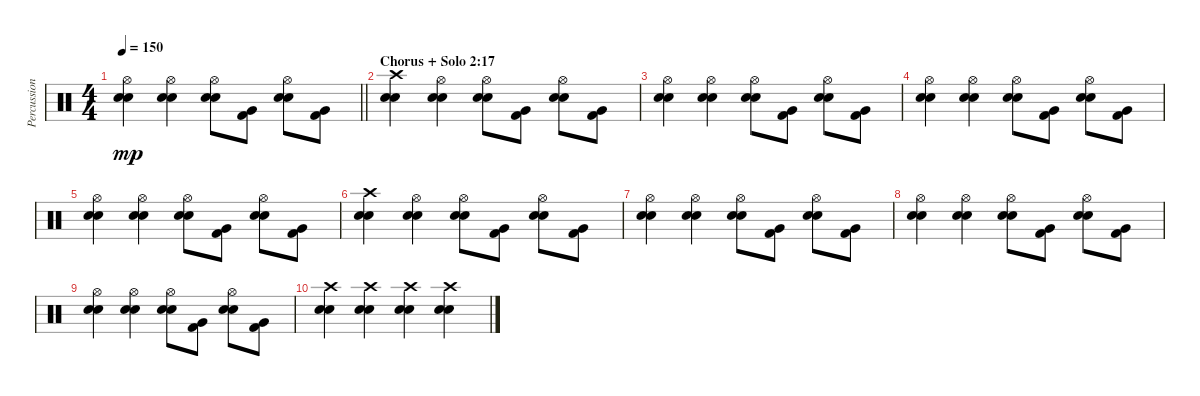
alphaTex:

\track ("Percussion" "Percussion") {instrument percussion}
\staff {score}
\articulation defaults
\ts (4 4)
\tempo 150
\clef neutral
\barLineRight lightlight
\ks c
("Electric Snare (hit)" "Snare (hit) 2" "Hi-Hat (open)").4{dy mp} ("Electric Snare (hit)" "Snare (hit) 2" "Hi-Hat (open)").4 ("Electric Snare (hit)" "Snare (hit) 2" "Hi-Hat (open)").8 ("Kick (hit) 2" "Very Low Tom (hit)").8 ("Electric Snare (hit)" "Snare (hit) 2" "Hi-Hat (open)").8 ("Kick (hit) 2" "Very Low Tom (hit)").8 |
\section ("" "Chorus + Solo 2:17")
("Electric Snare (hit)" "Snare (hit) 2" "Crash high (hit)").4 ("Electric Snare (hit)" "Snare (hit) 2" "Hi-Hat (open)").4 ("Electric Snare (hit)" "Snare (hit) 2" "Hi-Hat (open)").8 ("Kick (hit) 2" "Very Low Tom (hit)").8 ("Electric Snare (hit)" "Snare (hit) 2" "Hi-Hat (open)").8 ("Kick (hit) 2" "Very Low Tom (hit)").8 |
("Electric Snare (hit)" "Snare (hit) 2" "Hi-Hat (open)").4 ("Electric Snare (hit)" "Snare (hit) 2" "Hi-Hat (open)").4 ("Electric Snare (hit)" "Snare (hit) 2" "Hi-Hat (open)").8 ("Kick (hit) 2" "Very Low Tom (hit)").8 ("Electric Snare (hit)" "Snare (hit) 2" "Hi-Hat (open)").8 ("Kick (hit) 2" "Very Low Tom (hit)").8 |
("Electric Snare (hit)" "Snare (hit) 2" "Hi-Hat (open)").4 ("Electric Snare (hit)" "Snare (hit) 2" "Hi-Hat (open)").4 ("Electric Snare (hit)" "Snare (hit) 2" "Hi-Hat (open)").8 ("Kick (hit) 2" "Very Low Tom (hit)").8 ("Electric Snare (hit)" "Snare (hit) 2" "Hi-Hat (open)").8 ("Kick (hit) 2" "Very Low Tom (hit)").8 |
("Electric Snare (hit)" "Snare (hit) 2" "Hi-Hat (open)").4 ("Electric Snare (hit)" "Snare (hit) 2" "Hi-Hat (open)").4 ("Electric Snare (hit)" "Snare (hit) 2" "Hi-Hat (open)").8 ("Kick (hit) 2" "Very Low Tom (hit)").8 ("Electric Snare (hit)" "Snare (hit) 2" "Hi-Hat (open)").8 ("Kick (hit) 2" "Very Low Tom (hit)").8 |
("Electric Snare (hit)" "Snare (hit) 2" "Crash high (hit)").4 ("Electric Snare (hit)" "Snare (hit) 2" "Hi-Hat (open)").4 ("Electric Snare (hit)" "Snare (hit) 2" "Hi-Hat (open)").8 ("Kick (hit) 2" "Very Low Tom (hit)").8 ("Electric Snare (hit)" "Snare (hit) 2" "Hi-Hat (open)").8 ("Kick (hit) 2" "Very Low Tom (hit)").8 |
("Electric Snare (hit)" "Snare (hit) 2" "Hi-Hat (open)").4 ("Electric Snare (hit)" "Snare (hit) 2" "Hi-Hat (open)").4 ("Electric Snare (hit)" "Snare (hit) 2" "Hi-Hat (open)").8 ("Kick (hit) 2" "Very Low Tom (hit)").8 ("Electric Snare (hit)" "Snare (hit) 2" "Hi-Hat (open)").8 ("Kick (hit) 2" "Very Low Tom (hit)").8 |
("Electric Snare (hit)" "Snare (hit) 2" "Hi-Hat (open)").4 ("Electric Snare (hit)" "Snare (hit) 2" "Hi-Hat (open)").4 ("Electric Snare (hit)" "Snare (hit) 2" "Hi-Hat (open)").8 ("Kick (hit) 2" "Very Low Tom (hit)").8 ("Electric Snare (hit)" "Snare (hit) 2" "Hi-Hat (open)").8 ("Kick (hit) 2" "Very Low Tom (hit)").8 |
("Electric Snare (hit)" "Snare (hit) 2" "Hi-Hat (open)").4 ("Electric Snare (hit)" "Snare (hit) 2" "Hi-Hat (open)").4 ("Electric Snare (hit)" "Snare (hit) 2" "Hi-Hat (open)").8 ("Kick (hit) 2" "Very Low Tom (hit)").8 ("Electric Snare (hit)" "Snare (hit) 2" "Hi-Hat (open)").8 ("Kick (hit) 2" "Very Low Tom (hit)").8 |
("Electric Snare (hit)" "Snare (hit) 2" "Crash high (hit)").4 ("Electric Snare (hit)" "Snare (hit) 2" "Crash high (hit)").4 ("Electric Snare (hit)" "Snare (hit) 2" "Crash high (hit)").4 ("Electric Snare (hit)" "Snare (hit) 2" "Crash high (hit)").4
